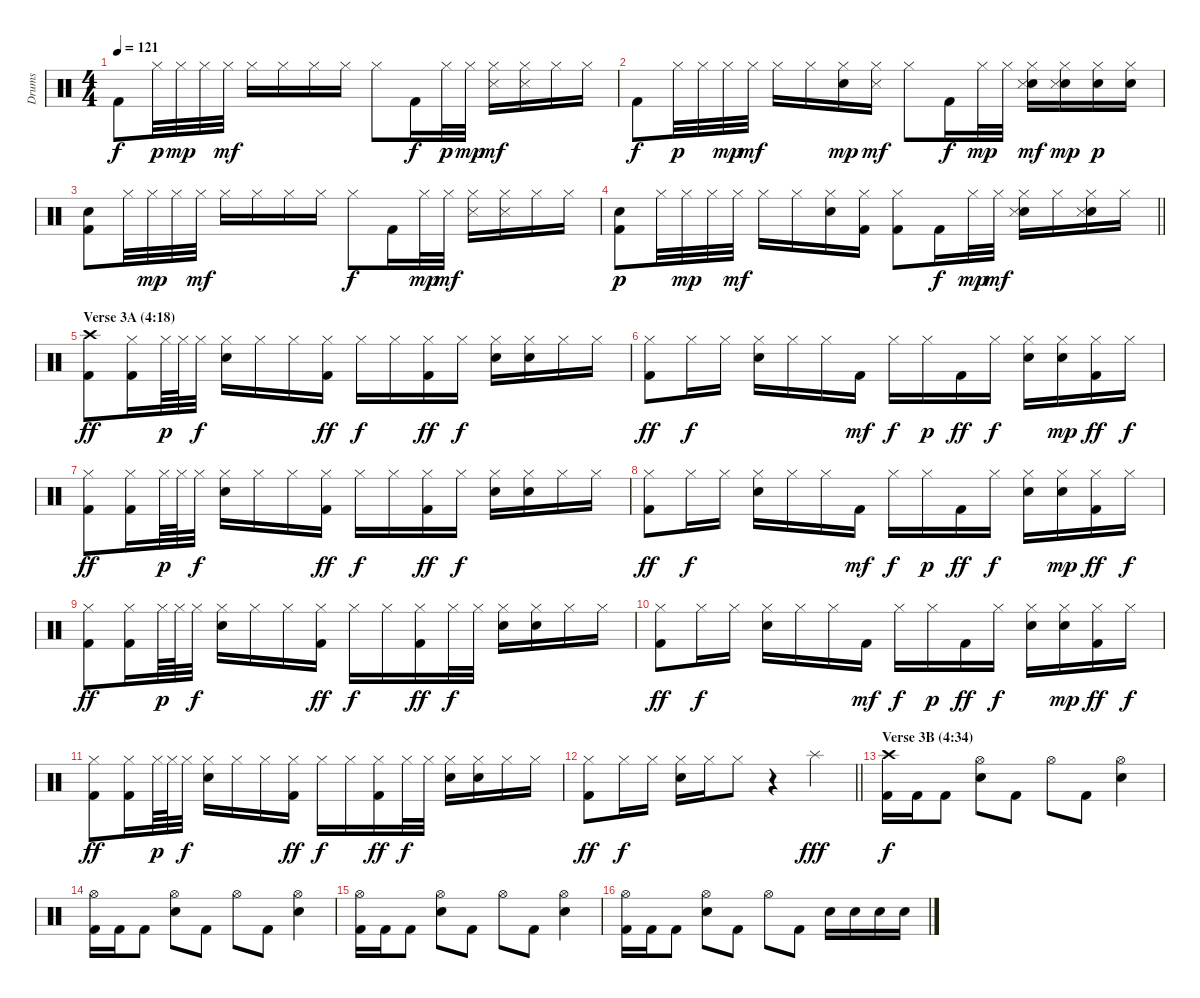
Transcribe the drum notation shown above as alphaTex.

\track ("Drums" "Drums") {instrument percussion}
\staff {score}
\articulation defaults
\ts (4 4)
\tempo 121
\clef neutral
\ks c "Kick (hit) 2".8{dy f} "Hi-Hat (closed)".32{dy p} "Hi-Hat (closed)".32{dy mp} "Hi-Hat (closed)".32 "Hi-Hat (closed)".32{dy mf} "Hi-Hat (closed)".16 "Hi-Hat (closed)".16 "Hi-Hat (closed)".16 "Hi-Hat (closed)".16 "Hi-Hat (closed)".8 "Kick (hit) 2".16{dy f} "Hi-Hat (closed)".32{dy p} "Hi-Hat (closed)".32{dy mp}
("Hi-Hat (closed)" "Snare (side stick) 3").16{dy mf} ("Hi-Hat (closed)" "Snare (side stick) 3").16 "Hi-Hat (closed)".16 "Hi-Hat (closed)".16 |
"Kick (hit) 2".8{dy f} "Hi-Hat (closed)".32{dy p} "Hi-Hat (closed)".32 "Hi-Hat (closed)".32{dy mp} "Hi-Hat (closed)".32{dy mf} "Hi-Hat (closed)".16 "Hi-Hat (closed)".16 ("Hi-Hat (closed)" "Snare (hit) 2").16{dy mp} ("Hi-Hat (closed)" "Snare (side stick) 3").16{dy mf} "Hi-Hat (closed)".8 "Kick (hit) 2".16{dy f} "Hi-Hat (closed)".32{dy mp} "Hi-Hat (closed)".32 ("Hi-Hat (closed)" "Snare (hit) 2" "Snare (side stick) 3").16{dy mf} ("Hi-Hat (closed)" "Snare (hit) 2" "Snare (side stick) 3").16{dy mp} ("Hi-Hat (closed)" "Snare (hit) 2").16{dy p} ("Hi-Hat (closed)" "Snare (hit) 2").16 |
("Snare (hit) 2" "Kick (hit) 2").8 "Hi-Hat (closed)".32 "Hi-Hat (closed)".32{dy mp} "Hi-Hat (closed)".32 "Hi-Hat (closed)".32{dy mf} "Hi-Hat (closed)".16 "Hi-Hat (closed)".16 "Hi-Hat (closed)".16 "Hi-Hat (closed)".16 "Hi-Hat (closed)".8{dy f} "Kick (hit) 2".16 "Hi-Hat (closed)".32{dy mp} "Hi-Hat (closed)".32{dy mf} ("Hi-Hat (closed)" "Snare (side stick) 3").16 ("Hi-Hat (closed)" "Snare (side stick) 3").16 "Hi-Hat (closed)".16 "Hi-Hat (closed)".16 |
\barLineRight lightlight
("Snare (hit) 2" "Kick (hit) 2").8{dy p} "Hi-Hat (closed)".32 "Hi-Hat (closed)".32{dy mp} "Hi-Hat (closed)".32 "Hi-Hat (closed)".32{dy mf} "Hi-Hat (closed)".16 "Hi-Hat (closed)".16 ("Hi-Hat (closed)" "Snare (hit) 2").16 ("Hi-Hat (closed)" "Kick (hit) 2").16 ("Hi-Hat (closed)" "Kick (hit) 2").8 "Kick (hit) 2".16{dy f} "Hi-Hat (closed)".32{dy mp} "Hi-Hat (closed)".32{dy mf} ("Hi-Hat (closed)" "Snare (hit) 2" "Snare (side stick) 3").16 "Hi-Hat (closed)".16 ("Hi-Hat (closed)" "Snare (hit) 2" "Snare (side stick) 3").16 "Hi-Hat (closed)".16 |
\section ("" "Verse 3A (4:18)")
("Crash high (hit)" "Kick (hit) 2").8{dy ff} ("Hi-Hat (closed)" "Kick (hit) 2").16 "Hi-Hat (closed)".64{dy p} "Hi-Hat (closed)".64 "Hi-Hat (closed)".32{dy f} ("Hi-Hat (closed)" "Electric Snare (hit)").16 "Hi-Hat (closed)".16 "Hi-Hat (closed)".16 ("Hi-Hat (closed)" "Kick (hit) 2").16{dy ff} "Hi-Hat (closed)".16{dy f} "Hi-Hat (closed)".16 ("Hi-Hat (closed)" "Kick (hit) 2").16{dy ff} "Hi-Hat (closed)".16{dy f} ("Hi-Hat (closed)" "Electric Snare (hit)").16 ("Hi-Hat (closed)" "Electric Snare (hit)").16 "Hi-Hat (closed)".16 "Hi-Hat (closed)".16 |
("Hi-Hat (closed)" "Kick (hit) 2").8{dy ff} "Hi-Hat (closed)".16{dy f} "Hi-Hat (closed)".16 ("Hi-Hat (closed)" "Electric Snare (hit)").16 "Hi-Hat (closed)".16 "Hi-Hat (closed)".16 "Kick (hit) 2".16{dy mf} "Hi-Hat (closed)".16{dy f} "Hi-Hat (closed)".16{dy p} "Kick (hit) 2".16{dy ff} "Hi-Hat (closed)".16{dy f} ("Hi-Hat (closed)" "Electric Snare (hit)").16 ("Hi-Hat (closed)" "Electric Snare (hit)").16{dy mp} ("Hi-Hat (closed)" "Kick (hit) 2").16{dy ff} "Hi-Hat (closed)".16{dy f} |
("Hi-Hat (closed)" "Kick (hit) 2").8{dy ff} ("Hi-Hat (closed)" "Kick (hit) 2").16 "Hi-Hat (closed)".64{dy p} "Hi-Hat (closed)".64 "Hi-Hat (closed)".32{dy f} ("Hi-Hat (closed)" "Electric Snare (hit)").16 "Hi-Hat (closed)".16 "Hi-Hat (closed)".16 ("Hi-Hat (closed)" "Kick (hit) 2").16{dy ff} "Hi-Hat (closed)".16{dy f} "Hi-Hat (closed)".16 ("Hi-Hat (closed)" "Kick (hit) 2").16{dy ff} "Hi-Hat (closed)".16{dy f} ("Hi-Hat (closed)" "Electric Snare (hit)").16 ("Hi-Hat (closed)" "Electric Snare (hit)").16 "Hi-Hat (closed)".16 "Hi-Hat (closed)".16 |
("Hi-Hat (closed)" "Kick (hit) 2").8{dy ff} "Hi-Hat (closed)".16{dy f} "Hi-Hat (closed)".16 ("Hi-Hat (closed)" "Electric Snare (hit)").16 "Hi-Hat (closed)".16 "Hi-Hat (closed)".16 "Kick (hit) 2".16{dy mf} "Hi-Hat (closed)".16{dy f} "Hi-Hat (closed)".16{dy p} "Kick (hit) 2".16{dy ff} "Hi-Hat (closed)".16{dy f} ("Hi-Hat (closed)" "Electric Snare (hit)").16 ("Hi-Hat (closed)" "Electric Snare (hit)").16{dy mp} ("Hi-Hat (closed)" "Kick (hit) 2").16{dy ff} "Hi-Hat (closed)".16{dy f} |
("Hi-Hat (closed)" "Kick (hit) 2").8{dy ff} ("Hi-Hat (closed)" "Kick (hit) 2").16 "Hi-Hat (closed)".64{dy p} "Hi-Hat (closed)".64 "Hi-Hat (closed)".32{dy f} ("Hi-Hat (closed)" "Electric Snare (hit)").16 "Hi-Hat (closed)".16 "Hi-Hat (closed)".16 ("Hi-Hat (closed)" "Kick (hit) 2").16{dy ff} "Hi-Hat (closed)".16{dy f} "Hi-Hat (closed)".16 ("Hi-Hat (closed)" "Kick (hit) 2").16{dy ff} "Hi-Hat (closed)".32{dy f} "Hi-Hat (closed)".32 ("Hi-Hat (closed)" "Electric Snare (hit)").16 ("Hi-Hat (closed)" "Electric Snare (hit)").16 "Hi-Hat (closed)".16 "Hi-Hat (closed)".16 |
("Hi-Hat (closed)" "Kick (hit) 2").8{dy ff} "Hi-Hat (closed)".16{dy f} "Hi-Hat (closed)".16 ("Hi-Hat (closed)" "Electric Snare (hit)").16 "Hi-Hat (closed)".16 "Hi-Hat (closed)".16 "Kick (hit) 2".16{dy mf} "Hi-Hat (closed)".16{dy f} "Hi-Hat (closed)".16{dy p} "Kick (hit) 2".16{dy ff} "Hi-Hat (closed)".16{dy f} ("Hi-Hat (closed)" "Electric Snare (hit)").16 ("Hi-Hat (closed)" "Electric Snare (hit)").16{dy mp} ("Hi-Hat (closed)" "Kick (hit) 2").16{dy ff} "Hi-Hat (closed)".16{dy f} |
("Hi-Hat (closed)" "Kick (hit) 2").8{dy ff} ("Hi-Hat (closed)" "Kick (hit) 2").16 "Hi-Hat (closed)".64{dy p} "Hi-Hat (closed)".64 "Hi-Hat (closed)".32{dy f} ("Hi-Hat (closed)" "Electric Snare (hit)").16 "Hi-Hat (closed)".16 "Hi-Hat (closed)".16 ("Hi-Hat (closed)" "Kick (hit) 2").16{dy ff} "Hi-Hat (closed)".16{dy f} "Hi-Hat (closed)".16 ("Hi-Hat (closed)" "Kick (hit) 2").16{dy ff} "Hi-Hat (closed)".32{dy f} "Hi-Hat (closed)".32 ("Hi-Hat (closed)" "Electric Snare (hit)").16 ("Hi-Hat (closed)" "Electric Snare (hit)").16 "Hi-Hat (closed)".16 "Hi-Hat (closed)".16 |
\barLineRight lightlight
("Hi-Hat (closed)" "Kick (hit) 2").8{dy ff} "Hi-Hat (closed)".16{dy f} "Hi-Hat (closed)".16 ("Hi-Hat (closed)" "Electric Snare (hit)").16 "Hi-Hat (closed)".16 "Hi-Hat (closed)".8 r.4{volume 16} "Splash (hit)".4{dy fff} |
\section ("" "Verse 3B (4:34)")
("Crash high (hit)" "Kick (hit) 2").16{dy f} "Kick (hit) 2".16 "Kick (hit) 2".8 ("Hi-Hat (open)" "Electric Snare (hit)").8 "Kick (hit) 2".8 "Hi-Hat (open)".8 "Kick (hit) 2".8 ("Hi-Hat (open)" "Electric Snare (hit)").4 |
("Hi-Hat (open)" "Kick (hit) 2").16 "Kick (hit) 2".16 "Kick (hit) 2".8 ("Hi-Hat (open)" "Electric Snare (hit)").8 "Kick (hit) 2".8 "Hi-Hat (open)".8 "Kick (hit) 2".8 ("Hi-Hat (open)" "Electric Snare (hit)").4 |
("Hi-Hat (open)" "Kick (hit) 2").16 "Kick (hit) 2".16 "Kick (hit) 2".8 ("Hi-Hat (open)" "Electric Snare (hit)").8 "Kick (hit) 2".8 "Hi-Hat (open)".8 "Kick (hit) 2".8 ("Hi-Hat (open)" "Electric Snare (hit)").4 |
("Hi-Hat (open)" "Kick (hit) 2").16 "Kick (hit) 2".16 "Kick (hit) 2".8 ("Hi-Hat (open)" "Electric Snare (hit)").8 "Kick (hit) 2".8 "Hi-Hat (open)".8 "Kick (hit) 2".8 "Electric Snare (hit)".16 "Electric Snare (hit)".16 "Electric Snare (hit)".16 "Electric Snare (hit)".16
